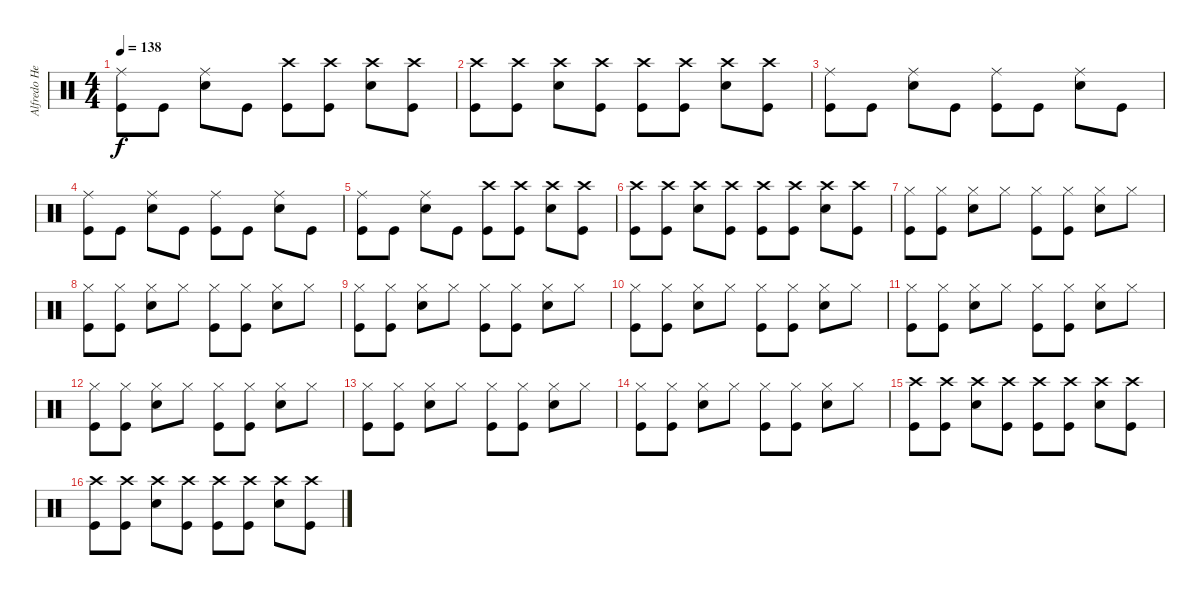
\track ("Alfredo Hernandez" "Alfredo He") {instrument percussion}
\staff {score}
\articulation defaults
\ts (4 4)
\tempo 138
\clef neutral
\ks c
("Kick (hit)" "Ride (middle)").8{dy f} "Kick (hit)".8 ("Snare (hit) 2" "Ride (middle)").8 "Kick (hit)".8 ("Kick (hit)" "Crash high (hit)").8 ("Kick (hit)" "Crash high (hit)").8 ("Snare (hit) 2" "Crash high (hit)").8 ("Kick (hit)" "Crash high (hit)").8 |
("Kick (hit)" "Crash high (hit)").8 ("Kick (hit)" "Crash high (hit)").8 ("Snare (hit) 2" "Crash high (hit)").8 ("Kick (hit)" "Crash high (hit)").8 ("Kick (hit)" "Crash high (hit)").8 ("Kick (hit)" "Crash high (hit)").8 ("Snare (hit) 2" "Crash high (hit)").8 ("Kick (hit)" "Crash high (hit)").8 |
("Kick (hit)" "Ride (middle)").8 "Kick (hit)".8 ("Snare (hit) 2" "Ride (middle)").8 "Kick (hit)".8 ("Kick (hit)" "Ride (middle)").8 "Kick (hit)".8 ("Snare (hit) 2" "Ride (middle)").8 "Kick (hit)".8 |
("Kick (hit)" "Ride (middle)").8 "Kick (hit)".8 ("Snare (hit) 2" "Ride (middle)").8 "Kick (hit)".8 ("Kick (hit)" "Ride (middle)").8 "Kick (hit)".8 ("Snare (hit) 2" "Ride (middle)").8 "Kick (hit)".8 |
("Kick (hit)" "Ride (middle)").8 "Kick (hit)".8 ("Snare (hit) 2" "Ride (middle)").8 "Kick (hit)".8 ("Kick (hit)" "Crash high (hit)").8 ("Kick (hit)" "Crash high (hit)").8 ("Snare (hit) 2" "Crash high (hit)").8 ("Kick (hit)" "Crash high (hit)").8 |
("Kick (hit)" "Crash high (hit)").8 ("Kick (hit)" "Crash high (hit)").8 ("Snare (hit) 2" "Crash high (hit)").8 ("Kick (hit)" "Crash high (hit)").8 ("Kick (hit)" "Crash high (hit)").8 ("Kick (hit)" "Crash high (hit)").8 ("Snare (hit) 2" "Crash high (hit)").8 ("Kick (hit)" "Crash high (hit)").8 |
("Kick (hit)" "Hi-Hat (closed)").8 ("Kick (hit)" "Hi-Hat (closed)").8 ("Snare (hit) 2" "Hi-Hat (closed)").8 "Hi-Hat (closed)".8 ("Kick (hit)" "Hi-Hat (closed)").8 ("Kick (hit)" "Hi-Hat (closed)").8 ("Snare (hit) 2" "Hi-Hat (closed)").8 "Hi-Hat (closed)".8 |
("Kick (hit)" "Hi-Hat (closed)").8 ("Kick (hit)" "Hi-Hat (closed)").8 ("Snare (hit) 2" "Hi-Hat (closed)").8 "Hi-Hat (closed)".8 ("Kick (hit)" "Hi-Hat (closed)").8 ("Kick (hit)" "Hi-Hat (closed)").8 ("Snare (hit) 2" "Hi-Hat (closed)").8 "Hi-Hat (closed)".8 |
("Kick (hit)" "Hi-Hat (closed)").8 ("Kick (hit)" "Hi-Hat (closed)").8 ("Snare (hit) 2" "Hi-Hat (closed)").8 "Hi-Hat (closed)".8 ("Kick (hit)" "Hi-Hat (closed)").8 ("Kick (hit)" "Hi-Hat (closed)").8 ("Snare (hit) 2" "Hi-Hat (closed)").8 "Hi-Hat (closed)".8 |
("Kick (hit)" "Hi-Hat (closed)").8 ("Kick (hit)" "Hi-Hat (closed)").8 ("Snare (hit) 2" "Hi-Hat (closed)").8 "Hi-Hat (closed)".8 ("Kick (hit)" "Hi-Hat (closed)").8 ("Kick (hit)" "Hi-Hat (closed)").8 ("Snare (hit) 2" "Hi-Hat (closed)").8 "Hi-Hat (closed)".8 |
("Kick (hit)" "Hi-Hat (closed)").8 ("Kick (hit)" "Hi-Hat (closed)").8 ("Snare (hit) 2" "Hi-Hat (closed)").8 "Hi-Hat (closed)".8 ("Kick (hit)" "Hi-Hat (closed)").8 ("Kick (hit)" "Hi-Hat (closed)").8 ("Snare (hit) 2" "Hi-Hat (closed)").8 "Hi-Hat (closed)".8 |
("Kick (hit)" "Hi-Hat (closed)").8 ("Kick (hit)" "Hi-Hat (closed)").8 ("Snare (hit) 2" "Hi-Hat (closed)").8 "Hi-Hat (closed)".8 ("Kick (hit)" "Hi-Hat (closed)").8 ("Kick (hit)" "Hi-Hat (closed)").8 ("Snare (hit) 2" "Hi-Hat (closed)").8 "Hi-Hat (closed)".8 |
("Kick (hit)" "Hi-Hat (closed)").8 ("Kick (hit)" "Hi-Hat (closed)").8 ("Snare (hit) 2" "Hi-Hat (closed)").8 "Hi-Hat (closed)".8 ("Kick (hit)" "Hi-Hat (closed)").8 ("Kick (hit)" "Hi-Hat (closed)").8 ("Snare (hit) 2" "Hi-Hat (closed)").8 "Hi-Hat (closed)".8 |
("Kick (hit)" "Hi-Hat (closed)").8 ("Kick (hit)" "Hi-Hat (closed)").8 ("Snare (hit) 2" "Hi-Hat (closed)").8 "Hi-Hat (closed)".8 ("Kick (hit)" "Hi-Hat (closed)").8 ("Kick (hit)" "Hi-Hat (closed)").8 ("Snare (hit) 2" "Hi-Hat (closed)").8 "Hi-Hat (closed)".8 |
("Kick (hit)" "Crash high (hit)").8 ("Kick (hit)" "Crash high (hit)").8 ("Snare (hit) 2" "Crash high (hit)").8 ("Kick (hit)" "Crash high (hit)").8 ("Kick (hit)" "Crash high (hit)").8 ("Kick (hit)" "Crash high (hit)").8 ("Snare (hit) 2" "Crash high (hit)").8 ("Kick (hit)" "Crash high (hit)").8 |
("Kick (hit)" "Crash high (hit)").8 ("Kick (hit)" "Crash high (hit)").8 ("Snare (hit) 2" "Crash high (hit)").8 ("Kick (hit)" "Crash high (hit)").8 ("Kick (hit)" "Crash high (hit)").8 ("Kick (hit)" "Crash high (hit)").8 ("Snare (hit) 2" "Crash high (hit)").8 ("Kick (hit)" "Crash high (hit)").8
